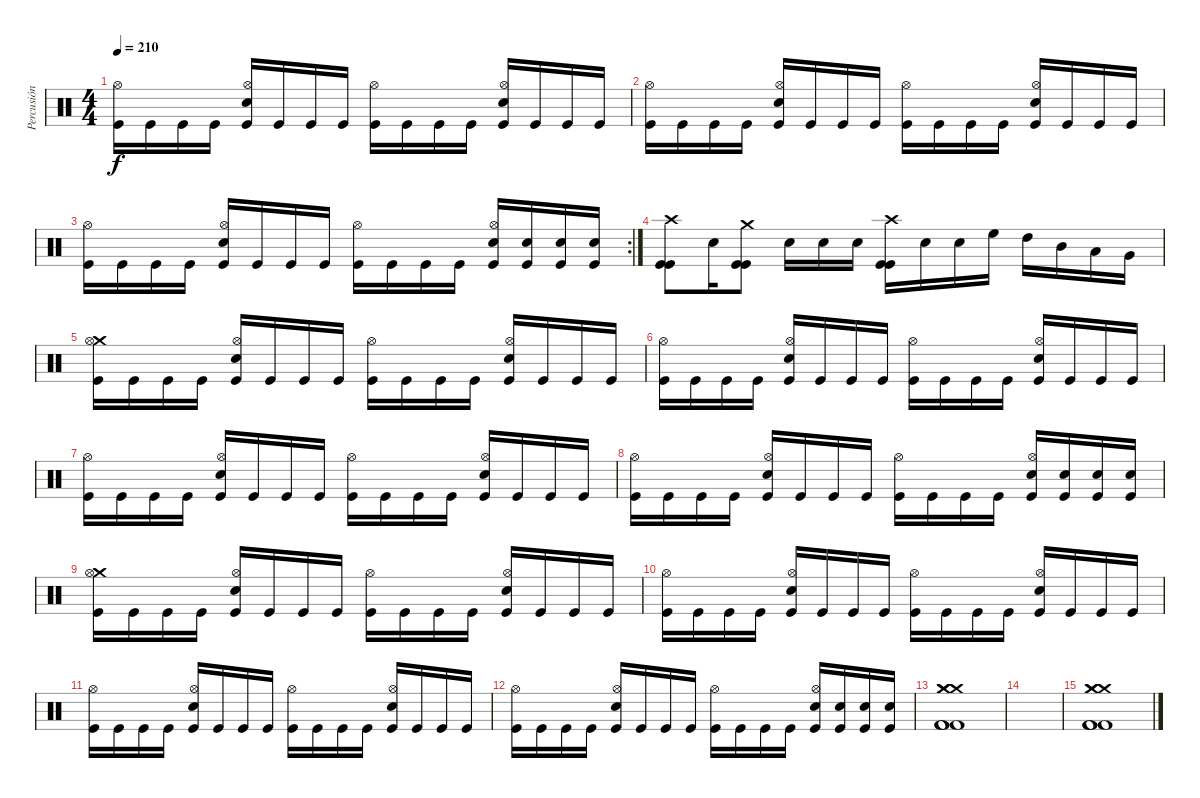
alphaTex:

\track ("Percusión" "Percusión") {instrument percussion}
\staff {score}
\articulation defaults
\ts (4 4)
\tempo 210
\clef neutral
\ks c
("Kick (hit)" "Hi-Hat (open)").16{dy f} "Kick (hit)".16 "Kick (hit)".16 "Kick (hit)".16 ("Kick (hit)" "Electric Snare (hit)" "Hi-Hat (open)").16 "Kick (hit)".16 "Kick (hit)".16 "Kick (hit)".16 ("Kick (hit)" "Hi-Hat (open)").16 "Kick (hit)".16 "Kick (hit)".16 "Kick (hit)".16 ("Kick (hit)" "Electric Snare (hit)" "Hi-Hat (open)").16 "Kick (hit)".16 "Kick (hit)".16 "Kick (hit)".16 |
("Kick (hit)" "Hi-Hat (open)").16 "Kick (hit)".16 "Kick (hit)".16 "Kick (hit)".16 ("Kick (hit)" "Electric Snare (hit)" "Hi-Hat (open)").16 "Kick (hit)".16 "Kick (hit)".16 "Kick (hit)".16 ("Kick (hit)" "Hi-Hat (open)").16 "Kick (hit)".16 "Kick (hit)".16 "Kick (hit)".16 ("Kick (hit)" "Electric Snare (hit)" "Hi-Hat (open)").16 "Kick (hit)".16 "Kick (hit)".16 "Kick (hit)".16 |
\rc 2
("Kick (hit)" "Hi-Hat (open)").16 "Kick (hit)".16 "Kick (hit)".16 "Kick (hit)".16 ("Kick (hit)" "Electric Snare (hit)" "Hi-Hat (open)").16 "Kick (hit)".16 "Kick (hit)".16 "Kick (hit)".16 ("Kick (hit)" "Hi-Hat (open)").16 "Kick (hit)".16 "Kick (hit)".16 "Kick (hit)".16 ("Kick (hit)" "Electric Snare (hit)" "Hi-Hat (open)").16 ("Kick (hit)" "Snare (hit) 2").16 ("Kick (hit)" "Snare (hit) 2").16 ("Kick (hit)" "Snare (hit) 2").16 |
("Kick (hit)" "Kick (hit)" "Crash high (hit)").8 "Snare (hit) 2".16 ("Kick (hit)" "Kick (hit)" "Crash medium (hit)").8 "Snare (hit) 2".16 "Snare (hit) 2".16 "Snare (hit) 2".16 ("Kick (hit)" "Kick (hit)" "Crash high (hit)").16 "Snare (hit) 2".16 "Snare (hit) 2".16 "High Floor Tom (hit)".16 "High Tom (hit)".16 "Mid Tom (hit)".16 "Low Tom (hit)".16 "Very Low Tom (hit)".16 |
("Kick (hit)" "Crash medium (hit)" "Hi-Hat (open)").16 "Kick (hit)".16 "Kick (hit)".16 "Kick (hit)".16 ("Kick (hit)" "Electric Snare (hit)" "Hi-Hat (open)").16 "Kick (hit)".16 "Kick (hit)".16 "Kick (hit)".16 ("Kick (hit)" "Hi-Hat (open)").16 "Kick (hit)".16 "Kick (hit)".16 "Kick (hit)".16 ("Kick (hit)" "Electric Snare (hit)" "Hi-Hat (open)").16 "Kick (hit)".16 "Kick (hit)".16 "Kick (hit)".16 |
("Kick (hit)" "Hi-Hat (open)").16 "Kick (hit)".16 "Kick (hit)".16 "Kick (hit)".16 ("Kick (hit)" "Electric Snare (hit)" "Hi-Hat (open)").16 "Kick (hit)".16 "Kick (hit)".16 "Kick (hit)".16 ("Kick (hit)" "Hi-Hat (open)").16 "Kick (hit)".16 "Kick (hit)".16 "Kick (hit)".16 ("Kick (hit)" "Electric Snare (hit)" "Hi-Hat (open)").16 "Kick (hit)".16 "Kick (hit)".16 "Kick (hit)".16 |
("Kick (hit)" "Hi-Hat (open)").16 "Kick (hit)".16 "Kick (hit)".16 "Kick (hit)".16 ("Kick (hit)" "Electric Snare (hit)" "Hi-Hat (open)").16 "Kick (hit)".16 "Kick (hit)".16 "Kick (hit)".16 ("Kick (hit)" "Hi-Hat (open)").16 "Kick (hit)".16 "Kick (hit)".16 "Kick (hit)".16 ("Kick (hit)" "Electric Snare (hit)" "Hi-Hat (open)").16 "Kick (hit)".16 "Kick (hit)".16 "Kick (hit)".16 |
("Kick (hit)" "Hi-Hat (open)").16 "Kick (hit)".16 "Kick (hit)".16 "Kick (hit)".16 ("Kick (hit)" "Electric Snare (hit)" "Hi-Hat (open)").16 "Kick (hit)".16 "Kick (hit)".16 "Kick (hit)".16 ("Kick (hit)" "Hi-Hat (open)").16 "Kick (hit)".16 "Kick (hit)".16 "Kick (hit)".16 ("Kick (hit)" "Electric Snare (hit)" "Hi-Hat (open)").16 ("Kick (hit)" "Snare (hit) 2").16 ("Kick (hit)" "Snare (hit) 2").16 ("Kick (hit)" "Snare (hit) 2").16 |
("Kick (hit)" "Crash medium (hit)" "Hi-Hat (open)").16 "Kick (hit)".16 "Kick (hit)".16 "Kick (hit)".16 ("Kick (hit)" "Electric Snare (hit)" "Hi-Hat (open)").16 "Kick (hit)".16 "Kick (hit)".16 "Kick (hit)".16 ("Kick (hit)" "Hi-Hat (open)").16 "Kick (hit)".16 "Kick (hit)".16 "Kick (hit)".16 ("Kick (hit)" "Electric Snare (hit)" "Hi-Hat (open)").16 "Kick (hit)".16 "Kick (hit)".16 "Kick (hit)".16 |
("Kick (hit)" "Hi-Hat (open)").16 "Kick (hit)".16 "Kick (hit)".16 "Kick (hit)".16 ("Kick (hit)" "Electric Snare (hit)" "Hi-Hat (open)").16 "Kick (hit)".16 "Kick (hit)".16 "Kick (hit)".16 ("Kick (hit)" "Hi-Hat (open)").16 "Kick (hit)".16 "Kick (hit)".16 "Kick (hit)".16 ("Kick (hit)" "Electric Snare (hit)" "Hi-Hat (open)").16 "Kick (hit)".16 "Kick (hit)".16 "Kick (hit)".16 |
("Kick (hit)" "Hi-Hat (open)").16 "Kick (hit)".16 "Kick (hit)".16 "Kick (hit)".16 ("Kick (hit)" "Electric Snare (hit)" "Hi-Hat (open)").16 "Kick (hit)".16 "Kick (hit)".16 "Kick (hit)".16 ("Kick (hit)" "Hi-Hat (open)").16 "Kick (hit)".16 "Kick (hit)".16 "Kick (hit)".16 ("Kick (hit)" "Electric Snare (hit)" "Hi-Hat (open)").16 "Kick (hit)".16 "Kick (hit)".16 "Kick (hit)".16 |
("Kick (hit)" "Hi-Hat (open)").16 "Kick (hit)".16 "Kick (hit)".16 "Kick (hit)".16 ("Kick (hit)" "Electric Snare (hit)" "Hi-Hat (open)").16 "Kick (hit)".16 "Kick (hit)".16 "Kick (hit)".16 ("Kick (hit)" "Hi-Hat (open)").16 "Kick (hit)".16 "Kick (hit)".16 "Kick (hit)".16 ("Kick (hit)" "Electric Snare (hit)" "Hi-Hat (open)").16 ("Kick (hit)" "Snare (hit) 2").16 ("Kick (hit)" "Snare (hit) 2").16 ("Kick (hit)" "Snare (hit) 2").16 |
("Crash medium (hit)" "Crash medium (hit)" "Crash medium (hit)" "Kick (hit) 2" "Kick (hit) 2" "Kick (hit) 2").1 |
|
("Crash medium (hit)" "Crash medium (hit)" "Crash medium (hit)" "Kick (hit) 2" "Kick (hit) 2" "Kick (hit) 2").1
